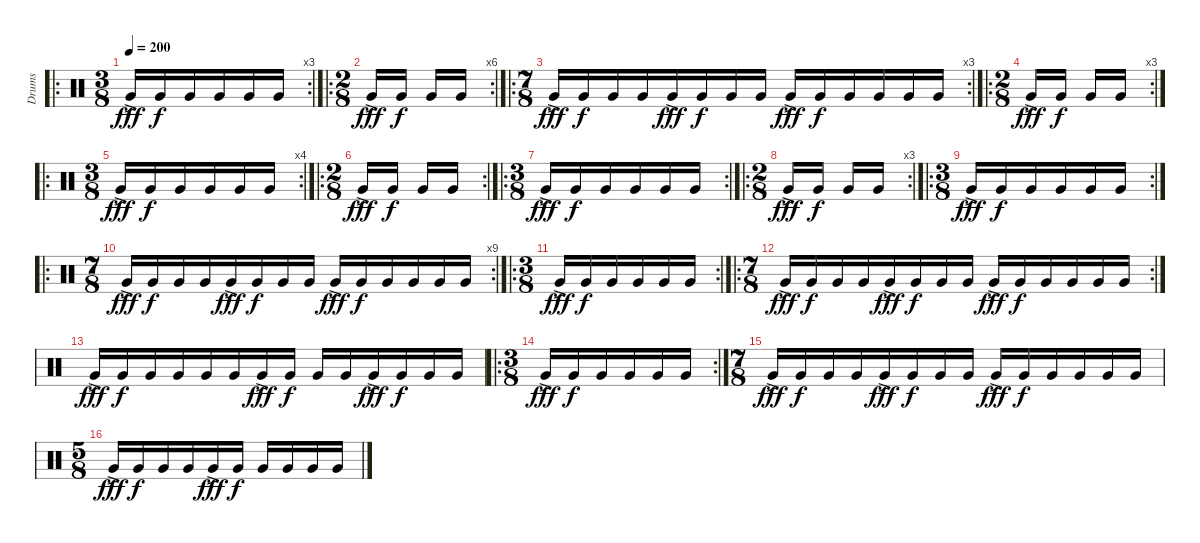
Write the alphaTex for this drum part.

\track ("Drums" "Drums") {instrument percussion}
\staff {score}
\articulation defaults
\ro
\rc 3
\ts (3 8)
\tempo 200
\clef neutral
\ks c "Very Low Tom (hit)"{ac}.16{dy fff} "Very Low Tom (hit)".16{dy f} "Very Low Tom (hit)".16 "Very Low Tom (hit)".16 "Very Low Tom (hit)".16 "Very Low Tom (hit)".16
|
\ro
\rc 6
\ts (2 8)
"Very Low Tom (hit)"{ac}.16{dy fff} "Very Low Tom (hit)".16{dy f} "Very Low Tom (hit)".16 "Very Low Tom (hit)".16 |
\ro
\rc 3
\ts (7 8)
"Very Low Tom (hit)"{ac}.16{dy fff} "Very Low Tom (hit)".16{dy f} "Very Low Tom (hit)".16 "Very Low Tom (hit)".16 "Very Low Tom (hit)"{ac}.16{dy fff} "Very Low Tom (hit)".16{dy f} "Very Low Tom (hit)".16 "Very Low Tom (hit)".16 "Very Low Tom (hit)"{ac}.16{dy fff} "Very Low Tom (hit)".16{dy f} "Very Low Tom (hit)".16 "Very Low Tom (hit)".16 "Very Low Tom (hit)".16 "Very Low Tom (hit)".16 |
\ro
\rc 3
\ts (2 8)
"Very Low Tom (hit)"{ac}.16{dy fff} "Very Low Tom (hit)".16{dy f} "Very Low Tom (hit)".16 "Very Low Tom (hit)".16 |
\ro
\rc 4
\ts (3 8)
"Very Low Tom (hit)"{ac}.16{dy fff} "Very Low Tom (hit)".16{dy f} "Very Low Tom (hit)".16 "Very Low Tom (hit)".16 "Very Low Tom (hit)".16 "Very Low Tom (hit)".16 |
\ro
\rc 2
\ts (2 8)
"Very Low Tom (hit)"{ac}.16{dy fff} "Very Low Tom (hit)".16{dy f} "Very Low Tom (hit)".16 "Very Low Tom (hit)".16 |
\ro
\rc 2
\ts (3 8)
"Very Low Tom (hit)"{ac}.16{dy fff} "Very Low Tom (hit)".16{dy f} "Very Low Tom (hit)".16 "Very Low Tom (hit)".16 "Very Low Tom (hit)".16 "Very Low Tom (hit)".16 |
\ro
\rc 3
\ts (2 8)
"Very Low Tom (hit)"{ac}.16{dy fff} "Very Low Tom (hit)".16{dy f} "Very Low Tom (hit)".16 "Very Low Tom (hit)".16 |
\ro
\rc 2
\ts (3 8)
"Very Low Tom (hit)"{ac}.16{dy fff} "Very Low Tom (hit)".16{dy f} "Very Low Tom (hit)".16 "Very Low Tom (hit)".16 "Very Low Tom (hit)".16 "Very Low Tom (hit)".16 |
\ro
\rc 9
\ts (7 8)
"Very Low Tom (hit)"{ac}.16{dy fff} "Very Low Tom (hit)".16{dy f} "Very Low Tom (hit)".16 "Very Low Tom (hit)".16 "Very Low Tom (hit)"{ac}.16{dy fff} "Very Low Tom (hit)".16{dy f} "Very Low Tom (hit)".16 "Very Low Tom (hit)".16 "Very Low Tom (hit)"{ac}.16{dy fff} "Very Low Tom (hit)".16{dy f} "Very Low Tom (hit)".16 "Very Low Tom (hit)".16 "Very Low Tom (hit)".16 "Very Low Tom (hit)".16 |
\ro
\rc 2
\ts (3 8)
"Very Low Tom (hit)"{ac}.16{dy fff} "Very Low Tom (hit)".16{dy f} "Very Low Tom (hit)".16 "Very Low Tom (hit)".16 "Very Low Tom (hit)".16 "Very Low Tom (hit)".16 |
\ro
\rc 2
\ts (7 8)
"Very Low Tom (hit)"{ac}.16{dy fff} "Very Low Tom (hit)".16{dy f} "Very Low Tom (hit)".16 "Very Low Tom (hit)".16 "Very Low Tom (hit)"{ac}.16{dy fff} "Very Low Tom (hit)".16{dy f} "Very Low Tom (hit)".16 "Very Low Tom (hit)".16 "Very Low Tom (hit)"{ac}.16{dy fff} "Very Low Tom (hit)".16{dy f} "Very Low Tom (hit)".16 "Very Low Tom (hit)".16 "Very Low Tom (hit)".16 "Very Low Tom (hit)".16 |
"Very Low Tom (hit)"{ac}.16{dy fff} "Very Low Tom (hit)".16{dy f} "Very Low Tom (hit)".16 "Very Low Tom (hit)".16 "Very Low Tom (hit)".16 "Very Low Tom (hit)".16 "Very Low Tom (hit)"{ac}.16{dy fff} "Very Low Tom (hit)".16{dy f} "Very Low Tom (hit)".16 "Very Low Tom (hit)".16 "Very Low Tom (hit)"{ac}.16{dy fff} "Very Low Tom (hit)".16{dy f} "Very Low Tom (hit)".16 "Very Low Tom (hit)".16 |
\ro
\rc 2
\ts (3 8)
"Very Low Tom (hit)"{ac}.16{dy fff} "Very Low Tom (hit)".16{dy f} "Very Low Tom (hit)".16 "Very Low Tom (hit)".16 "Very Low Tom (hit)".16 "Very Low Tom (hit)".16 |
\ts (7 8)
"Very Low Tom (hit)"{ac}.16{dy fff} "Very Low Tom (hit)".16{dy f} "Very Low Tom (hit)".16 "Very Low Tom (hit)".16 "Very Low Tom (hit)"{ac}.16{dy fff} "Very Low Tom (hit)".16{dy f} "Very Low Tom (hit)".16 "Very Low Tom (hit)".16 "Very Low Tom (hit)"{ac}.16{dy fff} "Very Low Tom (hit)".16{dy f} "Very Low Tom (hit)".16 "Very Low Tom (hit)".16 "Very Low Tom (hit)".16 "Very Low Tom (hit)".16 |
\ts (5 8)
"Very Low Tom (hit)"{ac}.16{dy fff} "Very Low Tom (hit)".16{dy f} "Very Low Tom (hit)".16 "Very Low Tom (hit)".16 "Very Low Tom (hit)"{ac}.16{dy fff} "Very Low Tom (hit)".16{dy f} "Very Low Tom (hit)".16 "Very Low Tom (hit)".16 "Very Low Tom (hit)".16 "Very Low Tom (hit)".16
